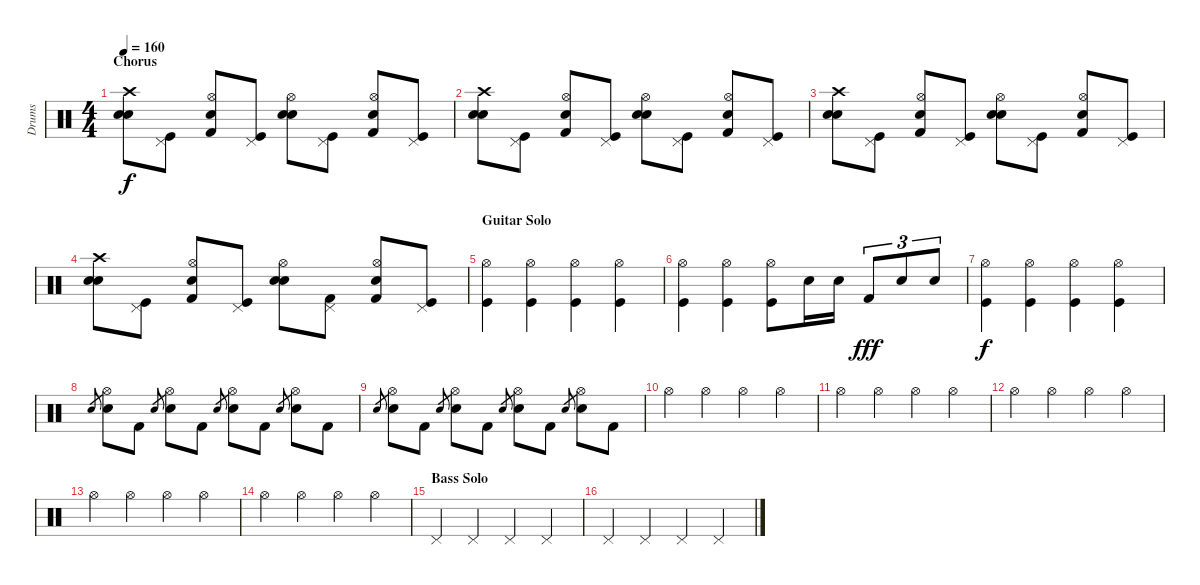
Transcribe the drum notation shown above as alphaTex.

\track ("Drums" "Drums") {instrument percussion}
\staff {score}
\articulation defaults
\ts (4 4)
\section ("" "Chorus")
\tempo 160
\clef neutral
\ks c
("Crash high (hit)" "Electric Snare (hit)" "Snare (hit) 2").8{dy f} ("Pedal Hi-Hat (hit)" "Kick (hit)").8 ("Hi-Hat (open)" "Electric Snare (hit)" "Kick (hit) 2").8 ("Pedal Hi-Hat (hit)" "Kick (hit)").8 ("Hi-Hat (open)" "Electric Snare (hit)" "Snare (hit) 2").8 ("Pedal Hi-Hat (hit)" "Kick (hit)").8 ("Hi-Hat (open)" "Electric Snare (hit)" "Kick (hit) 2").8 ("Pedal Hi-Hat (hit)" "Kick (hit)").8 |
("Crash high (hit)" "Electric Snare (hit)" "Snare (hit) 2").8 ("Pedal Hi-Hat (hit)" "Kick (hit)").8 ("Hi-Hat (open)" "Electric Snare (hit)" "Kick (hit) 2").8 ("Pedal Hi-Hat (hit)" "Kick (hit)").8 ("Hi-Hat (open)" "Electric Snare (hit)" "Snare (hit) 2").8 ("Pedal Hi-Hat (hit)" "Kick (hit)").8 ("Hi-Hat (open)" "Electric Snare (hit)" "Kick (hit) 2").8 ("Pedal Hi-Hat (hit)" "Kick (hit)").8 |
("Crash high (hit)" "Electric Snare (hit)" "Snare (hit) 2").8 ("Pedal Hi-Hat (hit)" "Kick (hit)").8 ("Hi-Hat (open)" "Electric Snare (hit)" "Kick (hit) 2").8 ("Pedal Hi-Hat (hit)" "Kick (hit)").8 ("Hi-Hat (open)" "Electric Snare (hit)" "Snare (hit) 2").8 ("Pedal Hi-Hat (hit)" "Kick (hit)").8 ("Hi-Hat (open)" "Electric Snare (hit)" "Kick (hit) 2").8 ("Pedal Hi-Hat (hit)" "Kick (hit)").8 |
("Crash high (hit)" "Electric Snare (hit)" "Snare (hit) 2").8 ("Pedal Hi-Hat (hit)" "Kick (hit)").8 ("Hi-Hat (open)" "Electric Snare (hit)" "Kick (hit) 2").8 ("Pedal Hi-Hat (hit)" "Kick (hit)").8 ("Hi-Hat (open)" "Electric Snare (hit)" "Snare (hit) 2").8 ("Pedal Hi-Hat (hit)" "Kick (hit) 2").8 ("Hi-Hat (open)" "Electric Snare (hit)" "Kick (hit) 2").8 ("Pedal Hi-Hat (hit)" "Kick (hit)").8 |
\section ("" "Guitar Solo")
("Hi-Hat (open)" "Kick (hit)").4 ("Hi-Hat (open)" "Kick (hit)").4 ("Hi-Hat (open)" "Kick (hit)").4 ("Hi-Hat (open)" "Kick (hit)").4 |
("Hi-Hat (open)" "Kick (hit)").4 ("Hi-Hat (open)" "Kick (hit)").4 ("Hi-Hat (open)" "Kick (hit)").8 "Snare (hit) 2".16 "Snare (hit) 2".16 "Kick (hit) 2".8{tu (3 2) dy fff} "Snare (hit) 2".8{tu (3 2)} "Electric Snare (hit)".8{tu (3 2)} |
("Hi-Hat (open)" "Kick (hit)").4{dy f} ("Hi-Hat (open)" "Kick (hit)").4 ("Hi-Hat (open)" "Kick (hit)").4 ("Hi-Hat (open)" "Kick (hit)").4 |
"Snare (hit) 2".8{gr} ("Hi-Hat (open)" "Electric Snare (hit)").8 "Kick (hit) 2".8 "Snare (hit) 2".8{gr} ("Hi-Hat (open)" "Electric Snare (hit)").8 "Kick (hit) 2".8 "Snare (hit) 2".8{gr} ("Hi-Hat (open)" "Electric Snare (hit)").8 "Kick (hit) 2".8 "Snare (hit) 2".8{gr} ("Hi-Hat (open)" "Electric Snare (hit)").8 "Kick (hit) 2".8 |
"Snare (hit) 2".8{gr} ("Hi-Hat (open)" "Electric Snare (hit)").8 "Kick (hit) 2".8 "Snare (hit) 2".8{gr} ("Hi-Hat (open)" "Electric Snare (hit)").8 "Kick (hit) 2".8 "Snare (hit) 2".8{gr} ("Hi-Hat (open)" "Electric Snare (hit)").8 "Kick (hit) 2".8 "Snare (hit) 2".8{gr} ("Hi-Hat (open)" "Electric Snare (hit)").8 "Kick (hit) 2".8 |
"Hi-Hat (open)".4 "Hi-Hat (open)".4 "Hi-Hat (open)".4 "Hi-Hat (open)".4 |
"Hi-Hat (open)".4 "Hi-Hat (open)".4 "Hi-Hat (open)".4 "Hi-Hat (open)".4 |
"Hi-Hat (open)".4 "Hi-Hat (open)".4 "Hi-Hat (open)".4 "Hi-Hat (open)".4 |
"Hi-Hat (open)".4 "Hi-Hat (open)".4 "Hi-Hat (open)".4 "Hi-Hat (open)".4 |
"Hi-Hat (open)".4 "Hi-Hat (open)".4 "Hi-Hat (open)".4 "Hi-Hat (open)".4 |
\section ("" "Bass Solo")
"Pedal Hi-Hat (hit)".4 "Pedal Hi-Hat (hit)".4 "Pedal Hi-Hat (hit)".4 "Pedal Hi-Hat (hit)".4 |
"Pedal Hi-Hat (hit)".4 "Pedal Hi-Hat (hit)".4 "Pedal Hi-Hat (hit)".4 "Pedal Hi-Hat (hit)".4
